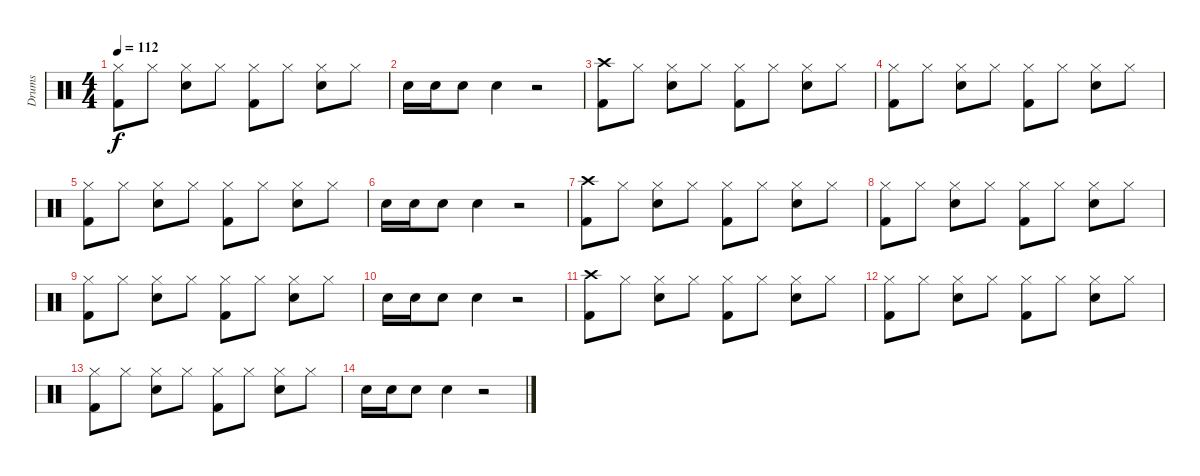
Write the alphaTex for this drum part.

\track ("Drums" "Drums") {instrument percussion}
\staff {score}
\articulation defaults
\ts (4 4)
\tempo 112
\clef neutral
\ks c
("Kick (hit) 2" "Hi-Hat (closed)").8{dy f} "Hi-Hat (closed)".8 ("Snare (hit) 2" "Hi-Hat (closed)").8 "Hi-Hat (closed)".8 ("Kick (hit) 2" "Hi-Hat (closed)").8 "Hi-Hat (closed)".8 ("Snare (hit) 2" "Hi-Hat (closed)").8 "Hi-Hat (closed)".8 |
"Snare (hit) 2".16 "Snare (hit) 2".16 "Snare (hit) 2".8 "Snare (hit) 2".4 r.2 |
("Kick (hit) 2" "Crash high (hit)").8 "Hi-Hat (closed)".8 ("Snare (hit) 2" "Hi-Hat (closed)").8 "Hi-Hat (closed)".8 ("Kick (hit) 2" "Hi-Hat (closed)").8 "Hi-Hat (closed)".8 ("Snare (hit) 2" "Hi-Hat (closed)").8 "Hi-Hat (closed)".8 |
("Kick (hit) 2" "Hi-Hat (closed)").8 "Hi-Hat (closed)".8 ("Snare (hit) 2" "Hi-Hat (closed)").8 "Hi-Hat (closed)".8 ("Kick (hit) 2" "Hi-Hat (closed)").8 "Hi-Hat (closed)".8 ("Snare (hit) 2" "Hi-Hat (closed)").8 "Hi-Hat (closed)".8 |
("Kick (hit) 2" "Hi-Hat (closed)").8 "Hi-Hat (closed)".8 ("Snare (hit) 2" "Hi-Hat (closed)").8 "Hi-Hat (closed)".8 ("Kick (hit) 2" "Hi-Hat (closed)").8 "Hi-Hat (closed)".8 ("Snare (hit) 2" "Hi-Hat (closed)").8 "Hi-Hat (closed)".8 |
"Snare (hit) 2".16 "Snare (hit) 2".16 "Snare (hit) 2".8 "Snare (hit) 2".4 r.2 |
("Kick (hit) 2" "Crash high (hit)").8 "Hi-Hat (closed)".8 ("Snare (hit) 2" "Hi-Hat (closed)").8 "Hi-Hat (closed)".8 ("Kick (hit) 2" "Hi-Hat (closed)").8 "Hi-Hat (closed)".8 ("Snare (hit) 2" "Hi-Hat (closed)").8 "Hi-Hat (closed)".8 |
("Kick (hit) 2" "Hi-Hat (closed)").8 "Hi-Hat (closed)".8 ("Snare (hit) 2" "Hi-Hat (closed)").8 "Hi-Hat (closed)".8 ("Kick (hit) 2" "Hi-Hat (closed)").8 "Hi-Hat (closed)".8 ("Snare (hit) 2" "Hi-Hat (closed)").8 "Hi-Hat (closed)".8 |
("Kick (hit) 2" "Hi-Hat (closed)").8 "Hi-Hat (closed)".8 ("Snare (hit) 2" "Hi-Hat (closed)").8 "Hi-Hat (closed)".8 ("Kick (hit) 2" "Hi-Hat (closed)").8 "Hi-Hat (closed)".8 ("Snare (hit) 2" "Hi-Hat (closed)").8 "Hi-Hat (closed)".8 |
"Snare (hit) 2".16 "Snare (hit) 2".16 "Snare (hit) 2".8 "Snare (hit) 2".4 r.2 |
("Kick (hit) 2" "Crash high (hit)").8 "Hi-Hat (closed)".8 ("Snare (hit) 2" "Hi-Hat (closed)").8 "Hi-Hat (closed)".8 ("Kick (hit) 2" "Hi-Hat (closed)").8 "Hi-Hat (closed)".8 ("Snare (hit) 2" "Hi-Hat (closed)").8 "Hi-Hat (closed)".8 |
("Kick (hit) 2" "Hi-Hat (closed)").8 "Hi-Hat (closed)".8 ("Snare (hit) 2" "Hi-Hat (closed)").8 "Hi-Hat (closed)".8 ("Kick (hit) 2" "Hi-Hat (closed)").8 "Hi-Hat (closed)".8 ("Snare (hit) 2" "Hi-Hat (closed)").8 "Hi-Hat (closed)".8 |
("Kick (hit) 2" "Hi-Hat (closed)").8 "Hi-Hat (closed)".8 ("Snare (hit) 2" "Hi-Hat (closed)").8 "Hi-Hat (closed)".8 ("Kick (hit) 2" "Hi-Hat (closed)").8 "Hi-Hat (closed)".8 ("Snare (hit) 2" "Hi-Hat (closed)").8 "Hi-Hat (closed)".8 |
"Snare (hit) 2".16 "Snare (hit) 2".16 "Snare (hit) 2".8 "Snare (hit) 2".4 r.2
